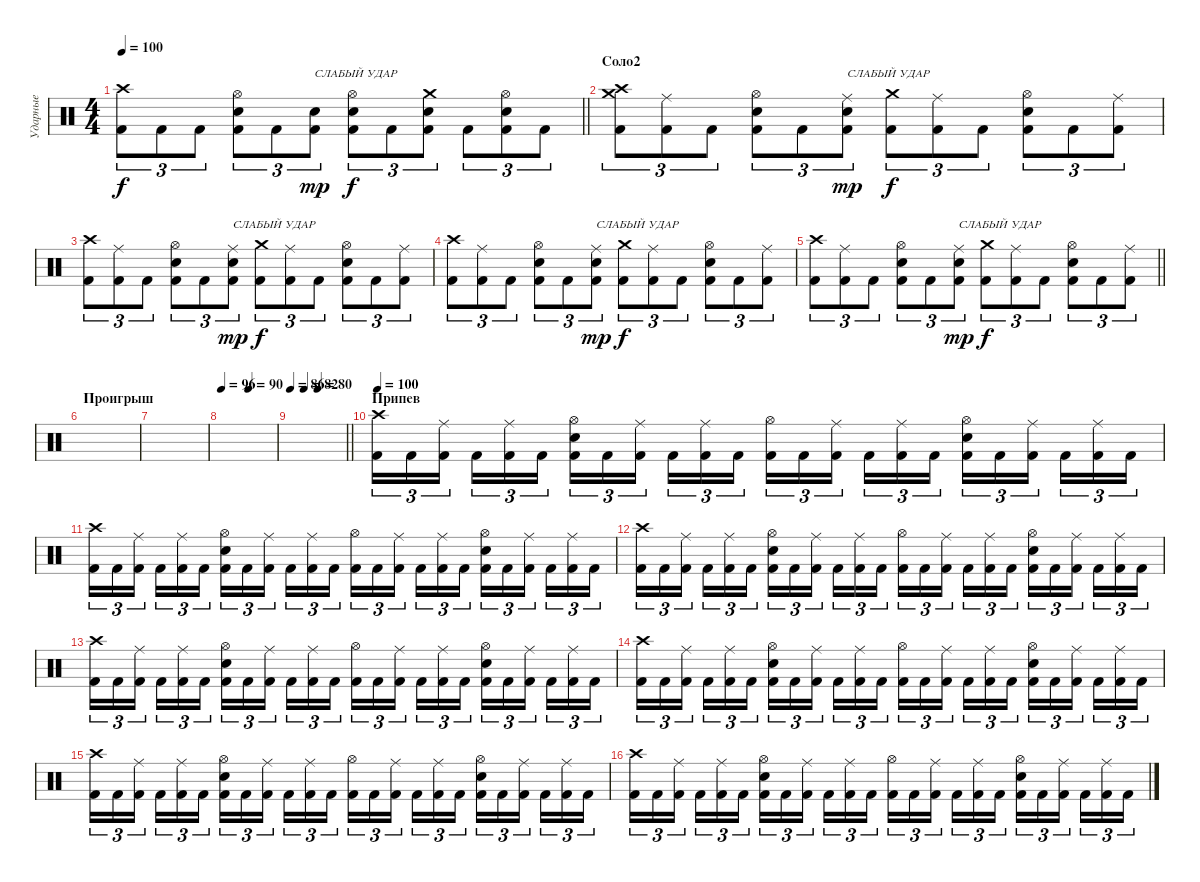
\track ("Ударные" "Ударные") {instrument percussion}
\staff {score}
\articulation defaults
\ts (4 4)
\tempo 100
\clef neutral
\barLineRight lightlight
\ks c
("Kick (hit) 2" "Crash high (hit)").8{tu (3 2) dy f} "Kick (hit) 2".8{tu (3 2)} "Kick (hit) 2".8{tu (3 2)} ("Kick (hit) 2" "Snare (hit) 2" "Hi-Hat (open)").8{tu (3 2)} "Kick (hit) 2".8{tu (3 2)} ("Kick (hit) 2" "Snare (hit) 2").8{tu (3 2) txt "СЛАБЫЙ УДАР" dy mp} ("Kick (hit) 2" "Snare (hit) 2" "Hi-Hat (open)").8{tu (3 2) dy f} "Kick (hit) 2".8{tu (3 2)} ("Kick (hit) 2" "Snare (hit) 2" "Crash medium (hit)").8{tu (3 2)} "Kick (hit) 2".8{tu (3 2)} ("Kick (hit) 2" "Snare (hit) 2" "Hi-Hat (open)").8{tu (3 2)} "Kick (hit) 2".8{tu (3 2)} |
\section ("" "Соло2")
("Kick (hit) 2" "Crash medium (hit)" "Crash high (hit)").8{tu (3 2)} ("Kick (hit) 2" "Ride (middle)").8{tu (3 2)} "Kick (hit) 2".8{tu (3 2)} ("Kick (hit) 2" "Snare (hit) 2" "Hi-Hat (open)").8{tu (3 2)} "Kick (hit) 2".8{tu (3 2)} ("Kick (hit) 2" "Snare (hit) 2" "Ride (middle)").8{tu (3 2) txt "СЛАБЫЙ УДАР" dy mp} ("Kick (hit) 2" "Crash medium (hit)").8{tu (3 2) dy f} ("Kick (hit) 2" "Ride (middle)").8{tu (3 2)} "Kick (hit) 2".8{tu (3 2)} ("Kick (hit) 2" "Snare (hit) 2" "Hi-Hat (open)").8{tu (3 2)} "Kick (hit) 2".8{tu (3 2)} ("Kick (hit) 2" "Ride (middle)").8{tu (3 2)} |
("Kick (hit) 2" "Crash high (hit)").8{tu (3 2)} ("Kick (hit) 2" "Ride (middle)").8{tu (3 2)} "Kick (hit) 2".8{tu (3 2)} ("Kick (hit) 2" "Snare (hit) 2" "Hi-Hat (open)").8{tu (3 2)} "Kick (hit) 2".8{tu (3 2)} ("Kick (hit) 2" "Snare (hit) 2" "Ride (middle)").8{tu (3 2) txt "СЛАБЫЙ УДАР" dy mp} ("Kick (hit) 2" "Crash medium (hit)").8{tu (3 2) dy f} ("Kick (hit) 2" "Ride (middle)").8{tu (3 2)} "Kick (hit) 2".8{tu (3 2)} ("Kick (hit) 2" "Snare (hit) 2" "Hi-Hat (open)").8{tu (3 2)} "Kick (hit) 2".8{tu (3 2)} ("Kick (hit) 2" "Ride (middle)").8{tu (3 2)} |
("Kick (hit) 2" "Crash high (hit)").8{tu (3 2)} ("Kick (hit) 2" "Ride (middle)").8{tu (3 2)} "Kick (hit) 2".8{tu (3 2)} ("Kick (hit) 2" "Snare (hit) 2" "Hi-Hat (open)").8{tu (3 2)} "Kick (hit) 2".8{tu (3 2)} ("Kick (hit) 2" "Snare (hit) 2" "Ride (middle)").8{tu (3 2) txt "СЛАБЫЙ УДАР" dy mp} ("Kick (hit) 2" "Crash medium (hit)").8{tu (3 2) dy f} ("Kick (hit) 2" "Ride (middle)").8{tu (3 2)} "Kick (hit) 2".8{tu (3 2)} ("Kick (hit) 2" "Snare (hit) 2" "Hi-Hat (open)").8{tu (3 2)} "Kick (hit) 2".8{tu (3 2)} ("Kick (hit) 2" "Ride (middle)").8{tu (3 2)} |
\barLineRight lightlight
("Kick (hit) 2" "Crash high (hit)").8{tu (3 2)} ("Kick (hit) 2" "Ride (middle)").8{tu (3 2)} "Kick (hit) 2".8{tu (3 2)} ("Kick (hit) 2" "Snare (hit) 2" "Hi-Hat (open)").8{tu (3 2)} "Kick (hit) 2".8{tu (3 2)} ("Kick (hit) 2" "Snare (hit) 2" "Ride (middle)").8{tu (3 2) txt "СЛАБЫЙ УДАР" dy mp} ("Kick (hit) 2" "Crash medium (hit)").8{tu (3 2) dy f} ("Kick (hit) 2" "Ride (middle)").8{tu (3 2)} "Kick (hit) 2".8{tu (3 2)} ("Kick (hit) 2" "Snare (hit) 2" "Hi-Hat (open)").8{tu (3 2)} "Kick (hit) 2".8{tu (3 2)} ("Kick (hit) 2" "Ride (middle)").8{tu (3 2)} |
\section ("" "Проигрыш")
|
|
\tempo 96
\tempo (90 0.5)
|
\tempo 86
\tempo (82 0.25)
\tempo (80 0.5)
\barLineRight lightlight
|
\section ("" "Припев")
\tempo 100
("Kick (hit) 2" "Crash high (hit)").16{tu (3 2)} "Kick (hit) 2".16{tu (3 2)} ("Kick (hit) 2" "Ride (middle)").16{tu (3 2) beam splitsecondary} "Kick (hit) 2".16{tu (3 2)} ("Kick (hit) 2" "Ride (middle)").16{tu (3 2)} "Kick (hit) 2".16{tu (3 2)} ("Kick (hit) 2" "Snare (hit) 2" "Hi-Hat (open)").16{tu (3 2)} "Kick (hit) 2".16{tu (3 2)} ("Kick (hit) 2" "Ride (middle)").16{tu (3 2) beam splitsecondary} "Kick (hit) 2".16{tu (3 2)} ("Kick (hit) 2" "Ride (middle)").16{tu (3 2)} "Kick (hit) 2".16{tu (3 2)} ("Kick (hit) 2" "Hi-Hat (open)").16{tu (3 2)} "Kick (hit) 2".16{tu (3 2)} ("Kick (hit) 2" "Ride (middle)").16{tu (3 2) beam splitsecondary} "Kick (hit) 2".16{tu (3 2)} ("Kick (hit) 2" "Ride (middle)").16{tu (3 2)} "Kick (hit) 2".16{tu (3 2)} ("Kick (hit) 2" "Snare (hit) 2" "Hi-Hat (open)").16{tu (3 2)} "Kick (hit) 2".16{tu (3 2)} ("Kick (hit) 2" "Ride (middle)").16{tu (3 2) beam splitsecondary} "Kick (hit) 2".16{tu (3 2)} ("Kick (hit) 2" "Ride (middle)").16{tu (3 2)} "Kick (hit) 2".16{tu (3 2)} |
("Kick (hit) 2" "Crash high (hit)").16{tu (3 2)} "Kick (hit) 2".16{tu (3 2)} ("Kick (hit) 2" "Ride (middle)").16{tu (3 2) beam splitsecondary} "Kick (hit) 2".16{tu (3 2)} ("Kick (hit) 2" "Ride (middle)").16{tu (3 2)} "Kick (hit) 2".16{tu (3 2)} ("Kick (hit) 2" "Snare (hit) 2" "Hi-Hat (open)").16{tu (3 2)} "Kick (hit) 2".16{tu (3 2)} ("Kick (hit) 2" "Ride (middle)").16{tu (3 2) beam splitsecondary} "Kick (hit) 2".16{tu (3 2)} ("Kick (hit) 2" "Ride (middle)").16{tu (3 2)} "Kick (hit) 2".16{tu (3 2)} ("Kick (hit) 2" "Hi-Hat (open)").16{tu (3 2)} "Kick (hit) 2".16{tu (3 2)} ("Kick (hit) 2" "Ride (middle)").16{tu (3 2) beam splitsecondary} "Kick (hit) 2".16{tu (3 2)} ("Kick (hit) 2" "Ride (middle)").16{tu (3 2)} "Kick (hit) 2".16{tu (3 2)} ("Kick (hit) 2" "Snare (hit) 2" "Hi-Hat (open)").16{tu (3 2)} "Kick (hit) 2".16{tu (3 2)} ("Kick (hit) 2" "Ride (middle)").16{tu (3 2) beam splitsecondary} "Kick (hit) 2".16{tu (3 2)} ("Kick (hit) 2" "Ride (middle)").16{tu (3 2)} "Kick (hit) 2".16{tu (3 2)} |
("Kick (hit) 2" "Crash high (hit)").16{tu (3 2)} "Kick (hit) 2".16{tu (3 2)} ("Kick (hit) 2" "Ride (middle)").16{tu (3 2) beam splitsecondary} "Kick (hit) 2".16{tu (3 2)} ("Kick (hit) 2" "Ride (middle)").16{tu (3 2)} "Kick (hit) 2".16{tu (3 2)} ("Kick (hit) 2" "Snare (hit) 2" "Hi-Hat (open)").16{tu (3 2)} "Kick (hit) 2".16{tu (3 2)} ("Kick (hit) 2" "Ride (middle)").16{tu (3 2) beam splitsecondary} "Kick (hit) 2".16{tu (3 2)} ("Kick (hit) 2" "Ride (middle)").16{tu (3 2)} "Kick (hit) 2".16{tu (3 2)} ("Kick (hit) 2" "Hi-Hat (open)").16{tu (3 2)} "Kick (hit) 2".16{tu (3 2)} ("Kick (hit) 2" "Ride (middle)").16{tu (3 2) beam splitsecondary} "Kick (hit) 2".16{tu (3 2)} ("Kick (hit) 2" "Ride (middle)").16{tu (3 2)} "Kick (hit) 2".16{tu (3 2)} ("Kick (hit) 2" "Snare (hit) 2" "Hi-Hat (open)").16{tu (3 2)} "Kick (hit) 2".16{tu (3 2)} ("Kick (hit) 2" "Ride (middle)").16{tu (3 2) beam splitsecondary} "Kick (hit) 2".16{tu (3 2)} ("Kick (hit) 2" "Ride (middle)").16{tu (3 2)} "Kick (hit) 2".16{tu (3 2)} |
("Kick (hit) 2" "Crash high (hit)").16{tu (3 2)} "Kick (hit) 2".16{tu (3 2)} ("Kick (hit) 2" "Ride (middle)").16{tu (3 2) beam splitsecondary} "Kick (hit) 2".16{tu (3 2)} ("Kick (hit) 2" "Ride (middle)").16{tu (3 2)} "Kick (hit) 2".16{tu (3 2)} ("Kick (hit) 2" "Snare (hit) 2" "Hi-Hat (open)").16{tu (3 2)} "Kick (hit) 2".16{tu (3 2)} ("Kick (hit) 2" "Ride (middle)").16{tu (3 2) beam splitsecondary} "Kick (hit) 2".16{tu (3 2)} ("Kick (hit) 2" "Ride (middle)").16{tu (3 2)} "Kick (hit) 2".16{tu (3 2)} ("Kick (hit) 2" "Hi-Hat (open)").16{tu (3 2)} "Kick (hit) 2".16{tu (3 2)} ("Kick (hit) 2" "Ride (middle)").16{tu (3 2) beam splitsecondary} "Kick (hit) 2".16{tu (3 2)} ("Kick (hit) 2" "Ride (middle)").16{tu (3 2)} "Kick (hit) 2".16{tu (3 2)} ("Kick (hit) 2" "Snare (hit) 2" "Hi-Hat (open)").16{tu (3 2)} "Kick (hit) 2".16{tu (3 2)} ("Kick (hit) 2" "Ride (middle)").16{tu (3 2) beam splitsecondary} "Kick (hit) 2".16{tu (3 2)} ("Kick (hit) 2" "Ride (middle)").16{tu (3 2)} "Kick (hit) 2".16{tu (3 2)} |
("Kick (hit) 2" "Crash high (hit)").16{tu (3 2)} "Kick (hit) 2".16{tu (3 2)} ("Kick (hit) 2" "Ride (middle)").16{tu (3 2) beam splitsecondary} "Kick (hit) 2".16{tu (3 2)} ("Kick (hit) 2" "Ride (middle)").16{tu (3 2)} "Kick (hit) 2".16{tu (3 2)} ("Kick (hit) 2" "Snare (hit) 2" "Hi-Hat (open)").16{tu (3 2)} "Kick (hit) 2".16{tu (3 2)} ("Kick (hit) 2" "Ride (middle)").16{tu (3 2) beam splitsecondary} "Kick (hit) 2".16{tu (3 2)} ("Kick (hit) 2" "Ride (middle)").16{tu (3 2)} "Kick (hit) 2".16{tu (3 2)} ("Kick (hit) 2" "Hi-Hat (open)").16{tu (3 2)} "Kick (hit) 2".16{tu (3 2)} ("Kick (hit) 2" "Ride (middle)").16{tu (3 2) beam splitsecondary} "Kick (hit) 2".16{tu (3 2)} ("Kick (hit) 2" "Ride (middle)").16{tu (3 2)} "Kick (hit) 2".16{tu (3 2)} ("Kick (hit) 2" "Snare (hit) 2" "Hi-Hat (open)").16{tu (3 2)} "Kick (hit) 2".16{tu (3 2)} ("Kick (hit) 2" "Ride (middle)").16{tu (3 2) beam splitsecondary} "Kick (hit) 2".16{tu (3 2)} ("Kick (hit) 2" "Ride (middle)").16{tu (3 2)} "Kick (hit) 2".16{tu (3 2)} |
("Kick (hit) 2" "Crash high (hit)").16{tu (3 2)} "Kick (hit) 2".16{tu (3 2)} ("Kick (hit) 2" "Ride (middle)").16{tu (3 2) beam splitsecondary} "Kick (hit) 2".16{tu (3 2)} ("Kick (hit) 2" "Ride (middle)").16{tu (3 2)} "Kick (hit) 2".16{tu (3 2)} ("Kick (hit) 2" "Snare (hit) 2" "Hi-Hat (open)").16{tu (3 2)} "Kick (hit) 2".16{tu (3 2)} ("Kick (hit) 2" "Ride (middle)").16{tu (3 2) beam splitsecondary} "Kick (hit) 2".16{tu (3 2)} ("Kick (hit) 2" "Ride (middle)").16{tu (3 2)} "Kick (hit) 2".16{tu (3 2)} ("Kick (hit) 2" "Hi-Hat (open)").16{tu (3 2)} "Kick (hit) 2".16{tu (3 2)} ("Kick (hit) 2" "Ride (middle)").16{tu (3 2) beam splitsecondary} "Kick (hit) 2".16{tu (3 2)} ("Kick (hit) 2" "Ride (middle)").16{tu (3 2)} "Kick (hit) 2".16{tu (3 2)} ("Kick (hit) 2" "Snare (hit) 2" "Hi-Hat (open)").16{tu (3 2)} "Kick (hit) 2".16{tu (3 2)} ("Kick (hit) 2" "Ride (middle)").16{tu (3 2) beam splitsecondary} "Kick (hit) 2".16{tu (3 2)} ("Kick (hit) 2" "Ride (middle)").16{tu (3 2)} "Kick (hit) 2".16{tu (3 2)} |
("Kick (hit) 2" "Crash high (hit)").16{tu (3 2)} "Kick (hit) 2".16{tu (3 2)} ("Kick (hit) 2" "Ride (middle)").16{tu (3 2) beam splitsecondary} "Kick (hit) 2".16{tu (3 2)} ("Kick (hit) 2" "Ride (middle)").16{tu (3 2)} "Kick (hit) 2".16{tu (3 2)} ("Kick (hit) 2" "Snare (hit) 2" "Hi-Hat (open)").16{tu (3 2)} "Kick (hit) 2".16{tu (3 2)} ("Kick (hit) 2" "Ride (middle)").16{tu (3 2) beam splitsecondary} "Kick (hit) 2".16{tu (3 2)} ("Kick (hit) 2" "Ride (middle)").16{tu (3 2)} "Kick (hit) 2".16{tu (3 2)} ("Kick (hit) 2" "Hi-Hat (open)").16{tu (3 2)} "Kick (hit) 2".16{tu (3 2)} ("Kick (hit) 2" "Ride (middle)").16{tu (3 2) beam splitsecondary} "Kick (hit) 2".16{tu (3 2)} ("Kick (hit) 2" "Ride (middle)").16{tu (3 2)} "Kick (hit) 2".16{tu (3 2)} ("Kick (hit) 2" "Snare (hit) 2" "Hi-Hat (open)").16{tu (3 2)} "Kick (hit) 2".16{tu (3 2)} ("Kick (hit) 2" "Ride (middle)").16{tu (3 2) beam splitsecondary} "Kick (hit) 2".16{tu (3 2)} ("Kick (hit) 2" "Ride (middle)").16{tu (3 2)} "Kick (hit) 2".16{tu (3 2)}
